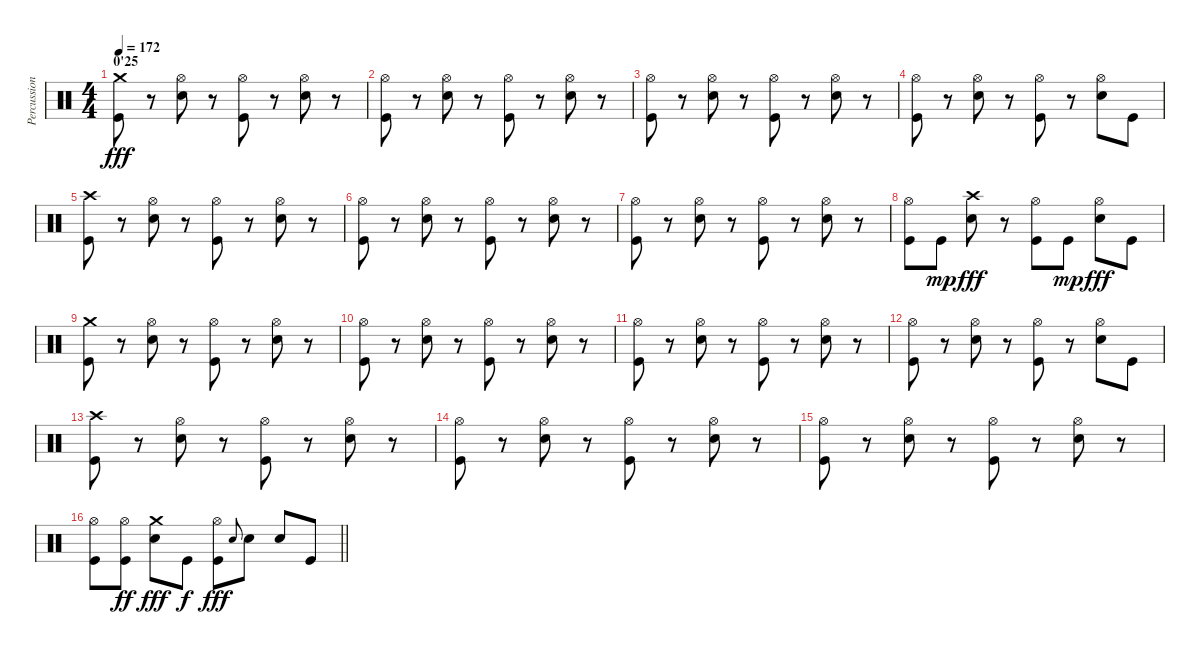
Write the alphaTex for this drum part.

\track ("Percussion" "Percussion") {instrument percussion}
\staff {score}
\articulation defaults
\ts (4 4)
\section ("" "0'25")
\tempo 172
\clef neutral
\ks c
("Crash medium (hit)" "Kick (hit)").8{dy fff} r.8 ("Hi-Hat (open)" "Electric Snare (hit)").8 r.8 ("Hi-Hat (open)" "Kick (hit)").8 r.8 ("Hi-Hat (open)" "Electric Snare (hit)").8 r.8 |
("Hi-Hat (open)" "Kick (hit)").8 r.8 ("Hi-Hat (open)" "Electric Snare (hit)").8 r.8 ("Hi-Hat (open)" "Kick (hit)").8 r.8 ("Hi-Hat (open)" "Electric Snare (hit)").8 r.8 |
("Hi-Hat (open)" "Kick (hit)").8 r.8 ("Hi-Hat (open)" "Electric Snare (hit)").8 r.8 ("Hi-Hat (open)" "Kick (hit)").8 r.8 ("Hi-Hat (open)" "Electric Snare (hit)").8 r.8 |
("Hi-Hat (open)" "Kick (hit)").8 r.8 ("Hi-Hat (open)" "Electric Snare (hit)").8 r.8 ("Hi-Hat (open)" "Kick (hit)").8 r.8 ("Hi-Hat (open)" "Electric Snare (hit)").8 "Kick (hit)".8 |
("Crash high (hit)" "Kick (hit)").8 r.8 ("Hi-Hat (open)" "Electric Snare (hit)").8 r.8 ("Hi-Hat (open)" "Kick (hit)").8 r.8 ("Hi-Hat (open)" "Electric Snare (hit)").8 r.8 |
("Hi-Hat (open)" "Kick (hit)").8 r.8 ("Hi-Hat (open)" "Electric Snare (hit)").8 r.8 ("Hi-Hat (open)" "Kick (hit)").8 r.8 ("Hi-Hat (open)" "Electric Snare (hit)").8 r.8 |
("Hi-Hat (open)" "Kick (hit)").8 r.8 ("Hi-Hat (open)" "Electric Snare (hit)").8 r.8 ("Hi-Hat (open)" "Kick (hit)").8 r.8 ("Hi-Hat (open)" "Electric Snare (hit)").8 r.8 |
("Hi-Hat (open)" "Kick (hit)").8 "Kick (hit)".8{dy mp} ("Crash high (hit)" "Electric Snare (hit)").8{dy fff} r.8 ("Hi-Hat (open)" "Kick (hit)").8 "Kick (hit)".8{dy mp} ("Hi-Hat (open)" "Electric Snare (hit)").8{dy fff} "Kick (hit)".8 |
("Crash medium (hit)" "Kick (hit)").8 r.8 ("Hi-Hat (open)" "Electric Snare (hit)").8 r.8 ("Hi-Hat (open)" "Kick (hit)").8 r.8 ("Hi-Hat (open)" "Electric Snare (hit)").8 r.8 |
("Hi-Hat (open)" "Kick (hit)").8 r.8 ("Hi-Hat (open)" "Electric Snare (hit)").8 r.8 ("Hi-Hat (open)" "Kick (hit)").8 r.8 ("Hi-Hat (open)" "Electric Snare (hit)").8 r.8 |
("Hi-Hat (open)" "Kick (hit)").8 r.8 ("Hi-Hat (open)" "Electric Snare (hit)").8 r.8 ("Hi-Hat (open)" "Kick (hit)").8 r.8 ("Hi-Hat (open)" "Electric Snare (hit)").8 r.8 |
("Hi-Hat (open)" "Kick (hit)").8 r.8 ("Hi-Hat (open)" "Electric Snare (hit)").8 r.8 ("Hi-Hat (open)" "Kick (hit)").8 r.8 ("Hi-Hat (open)" "Electric Snare (hit)").8 "Kick (hit)".8 |
("Crash high (hit)" "Kick (hit)").8 r.8 ("Hi-Hat (open)" "Electric Snare (hit)").8 r.8 ("Hi-Hat (open)" "Kick (hit)").8 r.8 ("Hi-Hat (open)" "Electric Snare (hit)").8 r.8 |
("Hi-Hat (open)" "Kick (hit)").8 r.8 ("Hi-Hat (open)" "Electric Snare (hit)").8 r.8 ("Hi-Hat (open)" "Kick (hit)").8 r.8 ("Hi-Hat (open)" "Electric Snare (hit)").8 r.8 |
("Hi-Hat (open)" "Kick (hit)").8 r.8 ("Hi-Hat (open)" "Electric Snare (hit)").8 r.8 ("Hi-Hat (open)" "Kick (hit)").8 r.8 ("Hi-Hat (open)" "Electric Snare (hit)").8 r.8 |
\barLineRight lightlight
("Hi-Hat (open)" "Kick (hit)").8 ("Hi-Hat (open)" "Kick (hit)").8{dy ff} ("Crash medium (hit)" "Electric Snare (hit)").8{dy fff} "Kick (hit)".8{dy f} ("Hi-Hat (open)" "Kick (hit)").8{dy fff} "Electric Snare (hit)".8{gr onbeat} "Electric Snare (hit)".8 "Electric Snare (hit)".8 "Kick (hit)".8
